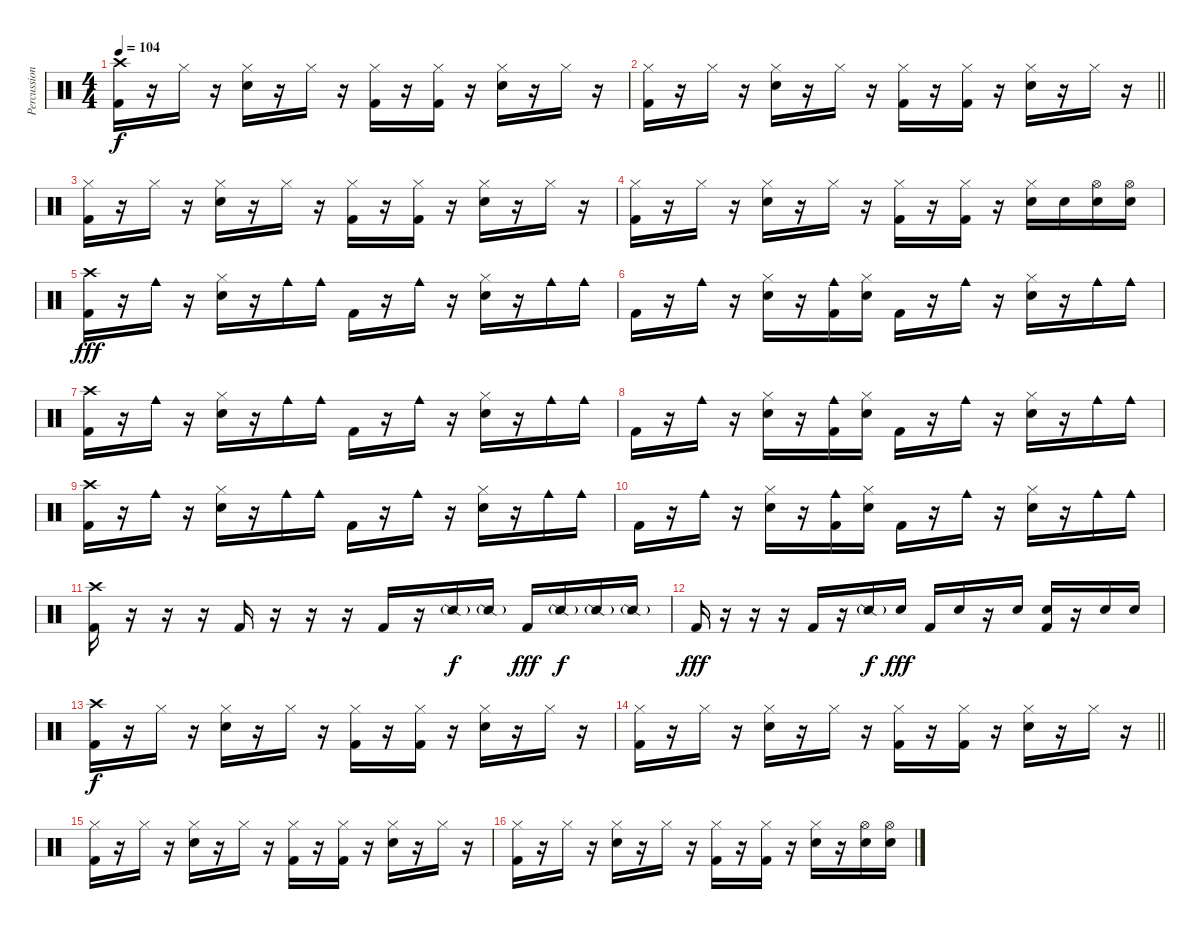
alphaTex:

\track ("Percussion" "Percussion") {instrument percussion}
\staff {score}
\articulation defaults
\ts (4 4)
\tempo 104
\clef neutral
\ks c
("Crash high (hit)" "Kick (hit) 2").16{dy f} r.16 "Hi-Hat (closed)".16 r.16 ("Hi-Hat (closed)" "Electric Snare (hit)").16 r.16 "Hi-Hat (closed)".16 r.16 ("Hi-Hat (closed)" "Kick (hit) 2").16 r.16 ("Hi-Hat (closed)" "Kick (hit) 2").16 r.16 ("Hi-Hat (closed)" "Electric Snare (hit)").16 r.16 "Hi-Hat (closed)".16 r.16 |
\barLineRight lightlight
("Hi-Hat (closed)" "Kick (hit) 2").16 r.16 "Hi-Hat (closed)".16 r.16 ("Hi-Hat (closed)" "Electric Snare (hit)").16 r.16 "Hi-Hat (closed)".16 r.16 ("Hi-Hat (closed)" "Kick (hit) 2").16 r.16 ("Hi-Hat (closed)" "Kick (hit) 2").16 r.16 ("Hi-Hat (closed)" "Electric Snare (hit)").16 r.16 "Hi-Hat (closed)".16 r.16 |
("Hi-Hat (closed)" "Kick (hit) 2").16 r.16 "Hi-Hat (closed)".16 r.16 ("Hi-Hat (closed)" "Electric Snare (hit)").16 r.16 "Hi-Hat (closed)".16 r.16 ("Hi-Hat (closed)" "Kick (hit) 2").16 r.16 ("Hi-Hat (closed)" "Kick (hit) 2").16 r.16 ("Hi-Hat (closed)" "Electric Snare (hit)").16 r.16 "Hi-Hat (closed)".16 r.16 |
("Hi-Hat (closed)" "Kick (hit) 2").16 r.16 "Hi-Hat (closed)".16 r.16 ("Hi-Hat (closed)" "Electric Snare (hit)").16 r.16 "Hi-Hat (closed)".16 r.16 ("Hi-Hat (closed)" "Kick (hit) 2").16 r.16 ("Hi-Hat (closed)" "Kick (hit) 2").16 r.16 ("Hi-Hat (closed)" "Electric Snare (hit)").16 "Electric Snare (hit)".16 ("Hi-Hat (open)" "Electric Snare (hit)").16 ("Hi-Hat (open)" "Electric Snare (hit)").16 |
("Crash high (hit)" "Kick (hit) 2").16{dy fff} r.16 "Cowbell medium (hit)".16 r.16 ("Hi-Hat (closed)" "Electric Snare (hit)").16 r.16 "Cowbell medium (hit)".16 "Cowbell medium (hit)".16 "Kick (hit) 2".16 r.16 "Cowbell medium (hit)".16 r.16 ("Hi-Hat (closed)" "Electric Snare (hit)").16 r.16 "Cowbell medium (hit)".16 "Cowbell medium (hit)".16 |
"Kick (hit) 2".16 r.16 "Cowbell medium (hit)".16 r.16 ("Hi-Hat (closed)" "Electric Snare (hit)").16 r.16 ("Cowbell medium (hit)" "Kick (hit) 2").16 ("Hi-Hat (closed)" "Electric Snare (hit)").16 "Kick (hit) 2".16 r.16 "Cowbell medium (hit)".16 r.16 ("Hi-Hat (closed)" "Electric Snare (hit)").16 r.16 "Cowbell medium (hit)".16 "Cowbell medium (hit)".16 |
("Crash high (hit)" "Kick (hit) 2").16 r.16 "Cowbell medium (hit)".16 r.16 ("Hi-Hat (closed)" "Electric Snare (hit)").16 r.16 "Cowbell medium (hit)".16 "Cowbell medium (hit)".16 "Kick (hit) 2".16 r.16 "Cowbell medium (hit)".16 r.16 ("Hi-Hat (closed)" "Electric Snare (hit)").16 r.16 "Cowbell medium (hit)".16 "Cowbell medium (hit)".16 |
"Kick (hit) 2".16 r.16 "Cowbell medium (hit)".16 r.16 ("Hi-Hat (closed)" "Electric Snare (hit)").16 r.16 ("Cowbell medium (hit)" "Kick (hit) 2").16 ("Hi-Hat (closed)" "Electric Snare (hit)").16 "Kick (hit) 2".16 r.16 "Cowbell medium (hit)".16 r.16 ("Hi-Hat (closed)" "Electric Snare (hit)").16 r.16 "Cowbell medium (hit)".16 "Cowbell medium (hit)".16 |
("Crash high (hit)" "Kick (hit) 2").16 r.16 "Cowbell medium (hit)".16 r.16 ("Hi-Hat (closed)" "Electric Snare (hit)").16 r.16 "Cowbell medium (hit)".16 "Cowbell medium (hit)".16 "Kick (hit) 2".16 r.16 "Cowbell medium (hit)".16 r.16 ("Hi-Hat (closed)" "Electric Snare (hit)").16 r.16 "Cowbell medium (hit)".16 "Cowbell medium (hit)".16 |
"Kick (hit) 2".16 r.16 "Cowbell medium (hit)".16 r.16 ("Hi-Hat (closed)" "Electric Snare (hit)").16 r.16 ("Cowbell medium (hit)" "Kick (hit) 2").16 ("Hi-Hat (closed)" "Electric Snare (hit)").16 "Kick (hit) 2".16 r.16 "Cowbell medium (hit)".16 r.16 ("Hi-Hat (closed)" "Electric Snare (hit)").16 r.16 "Cowbell medium (hit)".16 "Cowbell medium (hit)".16 |
("Crash high (hit)" "Kick (hit) 2").16 r.16 r.16 r.16 "Kick (hit) 2".16 r.16 r.16 r.16 "Kick (hit) 2".16 r.16 "Snare (side stick) 2"{g}.16{dy f} "Snare (side stick) 2"{g}.16 "Kick (hit) 2".16{dy fff} "Snare (side stick) 2"{g}.16{dy f} "Snare (side stick) 2"{g}.16 "Snare (side stick) 2"{g}.16 |
"Kick (hit) 2".16{dy fff} r.16 r.16 r.16 "Kick (hit) 2".16 r.16 "Snare (side stick) 2"{g}.16{dy f} "Electric Snare (hit)".16{dy fff} "Kick (hit) 2".16 "Electric Snare (hit)".16 r.16 "Electric Snare (hit)".16 ("Electric Snare (hit)" "Kick (hit) 2").16 r.16 "Electric Snare (hit)".16 "Electric Snare (hit)".16 |
("Crash high (hit)" "Kick (hit) 2").16{dy f} r.16 "Hi-Hat (closed)".16 r.16 ("Hi-Hat (closed)" "Electric Snare (hit)").16 r.16 "Hi-Hat (closed)".16 r.16 ("Hi-Hat (closed)" "Kick (hit) 2").16 r.16 ("Hi-Hat (closed)" "Kick (hit) 2").16 r.16 ("Hi-Hat (closed)" "Electric Snare (hit)").16 r.16 "Hi-Hat (closed)".16 r.16 |
\barLineRight lightlight
("Hi-Hat (closed)" "Kick (hit) 2").16 r.16 "Hi-Hat (closed)".16 r.16 ("Hi-Hat (closed)" "Electric Snare (hit)").16 r.16 "Hi-Hat (closed)".16 r.16 ("Hi-Hat (closed)" "Kick (hit) 2").16 r.16 ("Hi-Hat (closed)" "Kick (hit) 2").16 r.16 ("Hi-Hat (closed)" "Electric Snare (hit)").16 r.16 "Hi-Hat (closed)".16 r.16 |
("Hi-Hat (closed)" "Kick (hit) 2").16 r.16 "Hi-Hat (closed)".16 r.16 ("Hi-Hat (closed)" "Electric Snare (hit)").16 r.16 "Hi-Hat (closed)".16 r.16 ("Hi-Hat (closed)" "Kick (hit) 2").16 r.16 ("Hi-Hat (closed)" "Kick (hit) 2").16 r.16 ("Hi-Hat (closed)" "Electric Snare (hit)").16 r.16 "Hi-Hat (closed)".16 r.16 |
("Hi-Hat (closed)" "Kick (hit) 2").16 r.16 "Hi-Hat (closed)".16 r.16 ("Hi-Hat (closed)" "Electric Snare (hit)").16 r.16 "Hi-Hat (closed)".16 r.16 ("Hi-Hat (closed)" "Kick (hit) 2").16 r.16 ("Hi-Hat (closed)" "Kick (hit) 2").16 r.16 ("Hi-Hat (closed)" "Electric Snare (hit)").16 r.16 ("Hi-Hat (open)" "Electric Snare (hit)").16 ("Hi-Hat (open)" "Electric Snare (hit)").16
